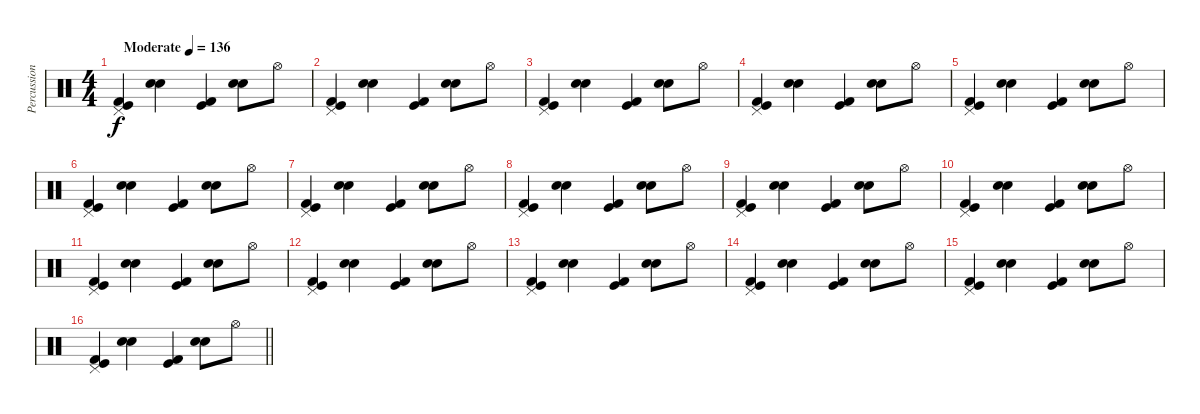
\track ("Percussion" "Percussion") {instrument percussion}
\staff {score}
\articulation defaults
\ts (4 4)
\tempo (136 "Moderate")
\clef neutral
\ks c
("Pedal Hi-Hat (hit)" "Kick (hit)" "Kick (hit) 2").4{dy f} ("Snare (hit) 2" "Electric Snare (hit)").4 ("Kick (hit)" "Kick (hit) 2").4 ("Snare (hit) 2" "Electric Snare (hit)").8 "Hi-Hat (open)".8 |
("Pedal Hi-Hat (hit)" "Kick (hit)" "Kick (hit) 2").4 ("Snare (hit) 2" "Electric Snare (hit)").4 ("Kick (hit)" "Kick (hit) 2").4 ("Snare (hit) 2" "Electric Snare (hit)").8 "Hi-Hat (open)".8 |
("Pedal Hi-Hat (hit)" "Kick (hit)" "Kick (hit) 2").4 ("Snare (hit) 2" "Electric Snare (hit)").4 ("Kick (hit)" "Kick (hit) 2").4 ("Snare (hit) 2" "Electric Snare (hit)").8 "Hi-Hat (open)".8 |
("Pedal Hi-Hat (hit)" "Kick (hit)" "Kick (hit) 2").4 ("Snare (hit) 2" "Electric Snare (hit)").4 ("Kick (hit)" "Kick (hit) 2").4 ("Snare (hit) 2" "Electric Snare (hit)").8 "Hi-Hat (open)".8 |
("Pedal Hi-Hat (hit)" "Kick (hit)" "Kick (hit) 2").4 ("Snare (hit) 2" "Electric Snare (hit)").4 ("Kick (hit)" "Kick (hit) 2").4 ("Snare (hit) 2" "Electric Snare (hit)").8 "Hi-Hat (open)".8 |
("Pedal Hi-Hat (hit)" "Kick (hit)" "Kick (hit) 2").4 ("Snare (hit) 2" "Electric Snare (hit)").4 ("Kick (hit)" "Kick (hit) 2").4 ("Snare (hit) 2" "Electric Snare (hit)").8 "Hi-Hat (open)".8 |
("Pedal Hi-Hat (hit)" "Kick (hit)" "Kick (hit) 2").4 ("Snare (hit) 2" "Electric Snare (hit)").4 ("Kick (hit)" "Kick (hit) 2").4 ("Snare (hit) 2" "Electric Snare (hit)").8 "Hi-Hat (open)".8 |
("Pedal Hi-Hat (hit)" "Kick (hit)" "Kick (hit) 2").4 ("Snare (hit) 2" "Electric Snare (hit)").4 ("Kick (hit)" "Kick (hit) 2").4 ("Snare (hit) 2" "Electric Snare (hit)").8 "Hi-Hat (open)".8 |
("Pedal Hi-Hat (hit)" "Kick (hit)" "Kick (hit) 2").4 ("Snare (hit) 2" "Electric Snare (hit)").4 ("Kick (hit)" "Kick (hit) 2").4 ("Snare (hit) 2" "Electric Snare (hit)").8 "Hi-Hat (open)".8 |
("Pedal Hi-Hat (hit)" "Kick (hit)" "Kick (hit) 2").4 ("Snare (hit) 2" "Electric Snare (hit)").4 ("Kick (hit)" "Kick (hit) 2").4 ("Snare (hit) 2" "Electric Snare (hit)").8 "Hi-Hat (open)".8 |
("Pedal Hi-Hat (hit)" "Kick (hit)" "Kick (hit) 2").4 ("Snare (hit) 2" "Electric Snare (hit)").4 ("Kick (hit)" "Kick (hit) 2").4 ("Snare (hit) 2" "Electric Snare (hit)").8 "Hi-Hat (open)".8 |
("Pedal Hi-Hat (hit)" "Kick (hit)" "Kick (hit) 2").4 ("Snare (hit) 2" "Electric Snare (hit)").4 ("Kick (hit)" "Kick (hit) 2").4 ("Snare (hit) 2" "Electric Snare (hit)").8 "Hi-Hat (open)".8 |
("Pedal Hi-Hat (hit)" "Kick (hit)" "Kick (hit) 2").4 ("Snare (hit) 2" "Electric Snare (hit)").4 ("Kick (hit)" "Kick (hit) 2").4 ("Snare (hit) 2" "Electric Snare (hit)").8 "Hi-Hat (open)".8 |
("Pedal Hi-Hat (hit)" "Kick (hit)" "Kick (hit) 2").4 ("Snare (hit) 2" "Electric Snare (hit)").4 ("Kick (hit)" "Kick (hit) 2").4 ("Snare (hit) 2" "Electric Snare (hit)").8 "Hi-Hat (open)".8 |
("Pedal Hi-Hat (hit)" "Kick (hit)" "Kick (hit) 2").4 ("Snare (hit) 2" "Electric Snare (hit)").4 ("Kick (hit)" "Kick (hit) 2").4 ("Snare (hit) 2" "Electric Snare (hit)").8 "Hi-Hat (open)".8 |
\barLineRight lightlight
("Pedal Hi-Hat (hit)" "Kick (hit)" "Kick (hit) 2").4 ("Snare (hit) 2" "Electric Snare (hit)").4 ("Kick (hit)" "Kick (hit) 2").4 ("Snare (hit) 2" "Electric Snare (hit)").8 "Hi-Hat (open)".8
